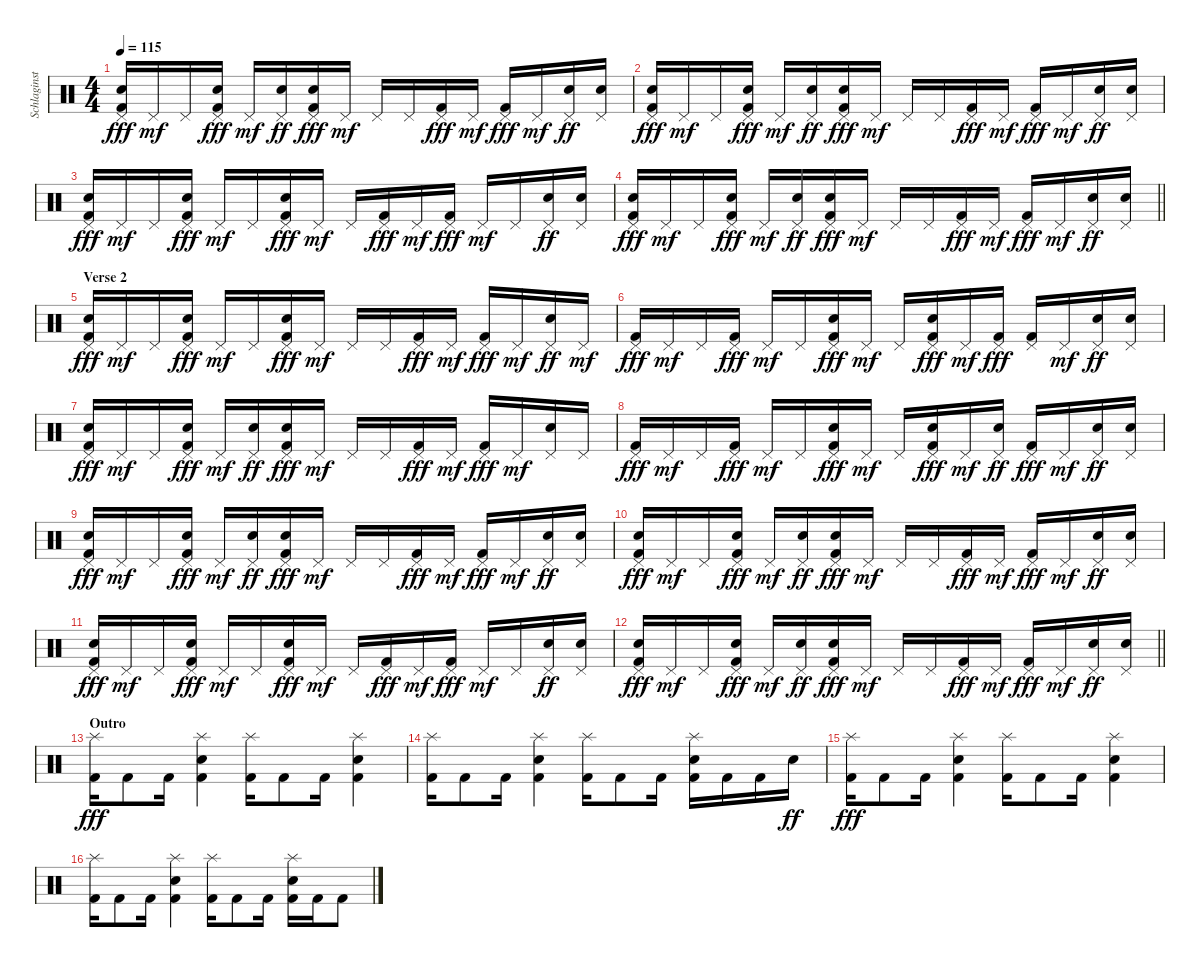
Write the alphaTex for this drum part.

\track ("Schlaginstrumente - Auswahl" "Schlaginst") {instrument percussion}
\staff {score}
\articulation defaults
\ts (4 4)
\tempo 115
\clef neutral
\ks c
("Pedal Hi-Hat (hit)" "Snare (hit) 2" "Kick (hit) 2").16{dy fff} "Pedal Hi-Hat (hit)".16{dy mf} "Pedal Hi-Hat (hit)".16 ("Pedal Hi-Hat (hit)" "Snare (hit) 2" "Kick (hit) 2").16{dy fff} "Pedal Hi-Hat (hit)".16{dy mf} ("Pedal Hi-Hat (hit)" "Snare (hit) 2").16{dy ff} ("Pedal Hi-Hat (hit)" "Snare (hit) 2" "Kick (hit) 2").16{dy fff} "Pedal Hi-Hat (hit)".16{dy mf} "Pedal Hi-Hat (hit)".16 "Pedal Hi-Hat (hit)".16 ("Pedal Hi-Hat (hit)" "Kick (hit) 2").16{dy fff} "Pedal Hi-Hat (hit)".16{dy mf} ("Pedal Hi-Hat (hit)" "Kick (hit) 2").16{dy fff} "Pedal Hi-Hat (hit)".16{dy mf} ("Pedal Hi-Hat (hit)" "Snare (hit) 2").16{dy ff} ("Pedal Hi-Hat (hit)" "Snare (hit) 2").16 |
("Pedal Hi-Hat (hit)" "Snare (hit) 2" "Kick (hit) 2").16{dy fff} "Pedal Hi-Hat (hit)".16{dy mf} "Pedal Hi-Hat (hit)".16 ("Pedal Hi-Hat (hit)" "Snare (hit) 2" "Kick (hit) 2").16{dy fff} "Pedal Hi-Hat (hit)".16{dy mf} ("Pedal Hi-Hat (hit)" "Snare (hit) 2").16{dy ff} ("Pedal Hi-Hat (hit)" "Snare (hit) 2" "Kick (hit) 2").16{dy fff} "Pedal Hi-Hat (hit)".16{dy mf} "Pedal Hi-Hat (hit)".16 "Pedal Hi-Hat (hit)".16 ("Pedal Hi-Hat (hit)" "Kick (hit) 2").16{dy fff} "Pedal Hi-Hat (hit)".16{dy mf} ("Pedal Hi-Hat (hit)" "Kick (hit) 2").16{dy fff} "Pedal Hi-Hat (hit)".16{dy mf} ("Pedal Hi-Hat (hit)" "Snare (hit) 2").16{dy ff} ("Pedal Hi-Hat (hit)" "Snare (hit) 2").16 |
("Pedal Hi-Hat (hit)" "Snare (hit) 2" "Kick (hit) 2").16{dy fff} "Pedal Hi-Hat (hit)".16{dy mf} "Pedal Hi-Hat (hit)".16 ("Pedal Hi-Hat (hit)" "Snare (hit) 2" "Kick (hit) 2").16{dy fff} "Pedal Hi-Hat (hit)".16{dy mf} "Pedal Hi-Hat (hit)".16 ("Pedal Hi-Hat (hit)" "Snare (hit) 2" "Kick (hit) 2").16{dy fff} "Pedal Hi-Hat (hit)".16{dy mf} "Pedal Hi-Hat (hit)".16 ("Pedal Hi-Hat (hit)" "Kick (hit) 2").16{dy fff} "Pedal Hi-Hat (hit)".16{dy mf} ("Pedal Hi-Hat (hit)" "Kick (hit) 2").16{dy fff} "Pedal Hi-Hat (hit)".16{dy mf} "Pedal Hi-Hat (hit)".16 ("Pedal Hi-Hat (hit)" "Snare (hit) 2").16{dy ff} ("Pedal Hi-Hat (hit)" "Snare (hit) 2").16 |
\barLineRight lightlight
("Pedal Hi-Hat (hit)" "Snare (hit) 2" "Kick (hit) 2").16{dy fff} "Pedal Hi-Hat (hit)".16{dy mf} "Pedal Hi-Hat (hit)".16 ("Pedal Hi-Hat (hit)" "Snare (hit) 2" "Kick (hit) 2").16{dy fff} "Pedal Hi-Hat (hit)".16{dy mf} ("Pedal Hi-Hat (hit)" "Snare (hit) 2").16{dy ff} ("Pedal Hi-Hat (hit)" "Snare (hit) 2" "Kick (hit) 2").16{dy fff} "Pedal Hi-Hat (hit)".16{dy mf} "Pedal Hi-Hat (hit)".16 "Pedal Hi-Hat (hit)".16 ("Pedal Hi-Hat (hit)" "Kick (hit) 2").16{dy fff} "Pedal Hi-Hat (hit)".16{dy mf} ("Pedal Hi-Hat (hit)" "Kick (hit) 2").16{dy fff} "Pedal Hi-Hat (hit)".16{dy mf} ("Pedal Hi-Hat (hit)" "Snare (hit) 2").16{dy ff} ("Pedal Hi-Hat (hit)" "Snare (hit) 2").16 |
\section ("" "Verse 2")
("Pedal Hi-Hat (hit)" "Snare (hit) 2" "Kick (hit) 2").16{dy fff} "Pedal Hi-Hat (hit)".16{dy mf} "Pedal Hi-Hat (hit)".16 ("Pedal Hi-Hat (hit)" "Snare (hit) 2" "Kick (hit) 2").16{dy fff} "Pedal Hi-Hat (hit)".16{dy mf} "Pedal Hi-Hat (hit)".16 ("Pedal Hi-Hat (hit)" "Snare (hit) 2" "Kick (hit) 2").16{dy fff} "Pedal Hi-Hat (hit)".16{dy mf} "Pedal Hi-Hat (hit)".16 "Pedal Hi-Hat (hit)".16 ("Pedal Hi-Hat (hit)" "Kick (hit) 2").16{dy fff} "Pedal Hi-Hat (hit)".16{dy mf} ("Pedal Hi-Hat (hit)" "Kick (hit) 2").16{dy fff} "Pedal Hi-Hat (hit)".16{dy mf} ("Pedal Hi-Hat (hit)" "Snare (hit) 2").16{dy ff} "Pedal Hi-Hat (hit)".16{dy mf} |
("Pedal Hi-Hat (hit)" "Kick (hit) 2").16{dy fff} "Pedal Hi-Hat (hit)".16{dy mf} "Pedal Hi-Hat (hit)".16 ("Pedal Hi-Hat (hit)" "Kick (hit) 2").16{dy fff} "Pedal Hi-Hat (hit)".16{dy mf} "Pedal Hi-Hat (hit)".16 ("Pedal Hi-Hat (hit)" "Snare (hit) 2" "Kick (hit) 2").16{dy fff} "Pedal Hi-Hat (hit)".16{dy mf} "Pedal Hi-Hat (hit)".16 ("Pedal Hi-Hat (hit)" "Snare (hit) 2" "Kick (hit) 2").16{dy fff} "Pedal Hi-Hat (hit)".16{dy mf} ("Pedal Hi-Hat (hit)" "Kick (hit) 2").16{dy fff} ("Pedal Hi-Hat (hit)" "Kick (hit) 2").16 "Pedal Hi-Hat (hit)".16{dy mf} ("Pedal Hi-Hat (hit)" "Snare (hit) 2").16{dy ff} ("Pedal Hi-Hat (hit)" "Snare (hit) 2").16 |
("Pedal Hi-Hat (hit)" "Snare (hit) 2" "Kick (hit) 2").16{dy fff} "Pedal Hi-Hat (hit)".16{dy mf} "Pedal Hi-Hat (hit)".16 ("Pedal Hi-Hat (hit)" "Snare (hit) 2" "Kick (hit) 2").16{dy fff} "Pedal Hi-Hat (hit)".16{dy mf} ("Pedal Hi-Hat (hit)" "Snare (hit) 2").16{dy ff} ("Pedal Hi-Hat (hit)" "Snare (hit) 2" "Kick (hit) 2").16{dy fff} "Pedal Hi-Hat (hit)".16{dy mf} "Pedal Hi-Hat (hit)".16 "Pedal Hi-Hat (hit)".16 ("Pedal Hi-Hat (hit)" "Kick (hit) 2").16{dy fff} "Pedal Hi-Hat (hit)".16{dy mf} ("Pedal Hi-Hat (hit)" "Kick (hit) 2").16{dy fff} "Pedal Hi-Hat (hit)".16{dy mf} ("Pedal Hi-Hat (hit)" "Snare (hit) 2").16 "Pedal Hi-Hat (hit)".16 |
("Pedal Hi-Hat (hit)" "Kick (hit) 2").16{dy fff} "Pedal Hi-Hat (hit)".16{dy mf} "Pedal Hi-Hat (hit)".16 ("Pedal Hi-Hat (hit)" "Kick (hit) 2").16{dy fff} "Pedal Hi-Hat (hit)".16{dy mf} "Pedal Hi-Hat (hit)".16 ("Pedal Hi-Hat (hit)" "Snare (hit) 2" "Kick (hit) 2").16{dy fff} "Pedal Hi-Hat (hit)".16{dy mf} "Pedal Hi-Hat (hit)".16 ("Pedal Hi-Hat (hit)" "Snare (hit) 2" "Kick (hit) 2").16{dy fff} "Pedal Hi-Hat (hit)".16{dy mf} ("Pedal Hi-Hat (hit)" "Snare (hit) 2").16{dy ff} ("Pedal Hi-Hat (hit)" "Kick (hit) 2").16{dy fff} "Pedal Hi-Hat (hit)".16{dy mf} ("Pedal Hi-Hat (hit)" "Snare (hit) 2").16{dy ff} ("Pedal Hi-Hat (hit)" "Snare (hit) 2").16 |
("Pedal Hi-Hat (hit)" "Snare (hit) 2" "Kick (hit) 2").16{dy fff} "Pedal Hi-Hat (hit)".16{dy mf} "Pedal Hi-Hat (hit)".16 ("Pedal Hi-Hat (hit)" "Snare (hit) 2" "Kick (hit) 2").16{dy fff} "Pedal Hi-Hat (hit)".16{dy mf} ("Pedal Hi-Hat (hit)" "Snare (hit) 2").16{dy ff} ("Pedal Hi-Hat (hit)" "Snare (hit) 2" "Kick (hit) 2").16{dy fff} "Pedal Hi-Hat (hit)".16{dy mf} "Pedal Hi-Hat (hit)".16 "Pedal Hi-Hat (hit)".16 ("Pedal Hi-Hat (hit)" "Kick (hit) 2").16{dy fff} "Pedal Hi-Hat (hit)".16{dy mf} ("Pedal Hi-Hat (hit)" "Kick (hit) 2").16{dy fff} "Pedal Hi-Hat (hit)".16{dy mf} ("Pedal Hi-Hat (hit)" "Snare (hit) 2").16{dy ff} ("Pedal Hi-Hat (hit)" "Snare (hit) 2").16 |
("Pedal Hi-Hat (hit)" "Snare (hit) 2" "Kick (hit) 2").16{dy fff} "Pedal Hi-Hat (hit)".16{dy mf} "Pedal Hi-Hat (hit)".16 ("Pedal Hi-Hat (hit)" "Snare (hit) 2" "Kick (hit) 2").16{dy fff} "Pedal Hi-Hat (hit)".16{dy mf} ("Pedal Hi-Hat (hit)" "Snare (hit) 2").16{dy ff} ("Pedal Hi-Hat (hit)" "Snare (hit) 2" "Kick (hit) 2").16{dy fff} "Pedal Hi-Hat (hit)".16{dy mf} "Pedal Hi-Hat (hit)".16 "Pedal Hi-Hat (hit)".16 ("Pedal Hi-Hat (hit)" "Kick (hit) 2").16{dy fff} "Pedal Hi-Hat (hit)".16{dy mf} ("Pedal Hi-Hat (hit)" "Kick (hit) 2").16{dy fff} "Pedal Hi-Hat (hit)".16{dy mf} ("Pedal Hi-Hat (hit)" "Snare (hit) 2").16{dy ff} ("Pedal Hi-Hat (hit)" "Snare (hit) 2").16 |
("Pedal Hi-Hat (hit)" "Snare (hit) 2" "Kick (hit) 2").16{dy fff} "Pedal Hi-Hat (hit)".16{dy mf} "Pedal Hi-Hat (hit)".16 ("Pedal Hi-Hat (hit)" "Snare (hit) 2" "Kick (hit) 2").16{dy fff} "Pedal Hi-Hat (hit)".16{dy mf} "Pedal Hi-Hat (hit)".16 ("Pedal Hi-Hat (hit)" "Snare (hit) 2" "Kick (hit) 2").16{dy fff} "Pedal Hi-Hat (hit)".16{dy mf} "Pedal Hi-Hat (hit)".16 ("Pedal Hi-Hat (hit)" "Kick (hit) 2").16{dy fff} "Pedal Hi-Hat (hit)".16{dy mf} ("Pedal Hi-Hat (hit)" "Kick (hit) 2").16{dy fff} "Pedal Hi-Hat (hit)".16{dy mf} "Pedal Hi-Hat (hit)".16 ("Pedal Hi-Hat (hit)" "Snare (hit) 2").16{dy ff} ("Pedal Hi-Hat (hit)" "Snare (hit) 2").16 |
\barLineRight lightlight
("Pedal Hi-Hat (hit)" "Snare (hit) 2" "Kick (hit) 2").16{dy fff} "Pedal Hi-Hat (hit)".16{dy mf} "Pedal Hi-Hat (hit)".16 ("Pedal Hi-Hat (hit)" "Snare (hit) 2" "Kick (hit) 2").16{dy fff} "Pedal Hi-Hat (hit)".16{dy mf} ("Pedal Hi-Hat (hit)" "Snare (hit) 2").16{dy ff} ("Pedal Hi-Hat (hit)" "Snare (hit) 2" "Kick (hit) 2").16{dy fff} "Pedal Hi-Hat (hit)".16{dy mf} "Pedal Hi-Hat (hit)".16 "Pedal Hi-Hat (hit)".16 ("Pedal Hi-Hat (hit)" "Kick (hit) 2").16{dy fff} "Pedal Hi-Hat (hit)".16{dy mf} ("Pedal Hi-Hat (hit)" "Kick (hit) 2").16{dy fff} "Pedal Hi-Hat (hit)".16{dy mf} ("Pedal Hi-Hat (hit)" "Snare (hit) 2").16{dy ff} ("Pedal Hi-Hat (hit)" "Snare (hit) 2").16 |
\section ("" "Outro")
("Splash (hit)" "Kick (hit) 2").16{dy fff} "Kick (hit) 2".8 "Kick (hit) 2".16 ("Splash (hit)" "Snare (hit) 2" "Kick (hit) 2").4 ("Splash (hit)" "Kick (hit) 2").16 "Kick (hit) 2".8 "Kick (hit) 2".16 ("Splash (hit)" "Snare (hit) 2" "Kick (hit) 2").4 |
("Splash (hit)" "Kick (hit) 2").16 "Kick (hit) 2".8 "Kick (hit) 2".16 ("Splash (hit)" "Snare (hit) 2" "Kick (hit) 2").4 ("Splash (hit)" "Kick (hit) 2").16 "Kick (hit) 2".8 "Kick (hit) 2".16 ("Splash (hit)" "Snare (hit) 2" "Kick (hit) 2").16 "Kick (hit) 2".16 "Kick (hit) 2".16 "Snare (hit) 2".16{dy ff} |
("Splash (hit)" "Kick (hit) 2").16{dy fff} "Kick (hit) 2".8 "Kick (hit) 2".16 ("Splash (hit)" "Snare (hit) 2" "Kick (hit) 2").4 ("Splash (hit)" "Kick (hit) 2").16 "Kick (hit) 2".8 "Kick (hit) 2".16 ("Splash (hit)" "Snare (hit) 2" "Kick (hit) 2").4 |
("Splash (hit)" "Kick (hit) 2").16 "Kick (hit) 2".8 "Kick (hit) 2".16 ("Splash (hit)" "Snare (hit) 2" "Kick (hit) 2").4 ("Splash (hit)" "Kick (hit) 2").16 "Kick (hit) 2".8 "Kick (hit) 2".16 ("Splash (hit)" "Snare (hit) 2" "Kick (hit) 2").16 "Kick (hit) 2".16 "Kick (hit) 2".8
